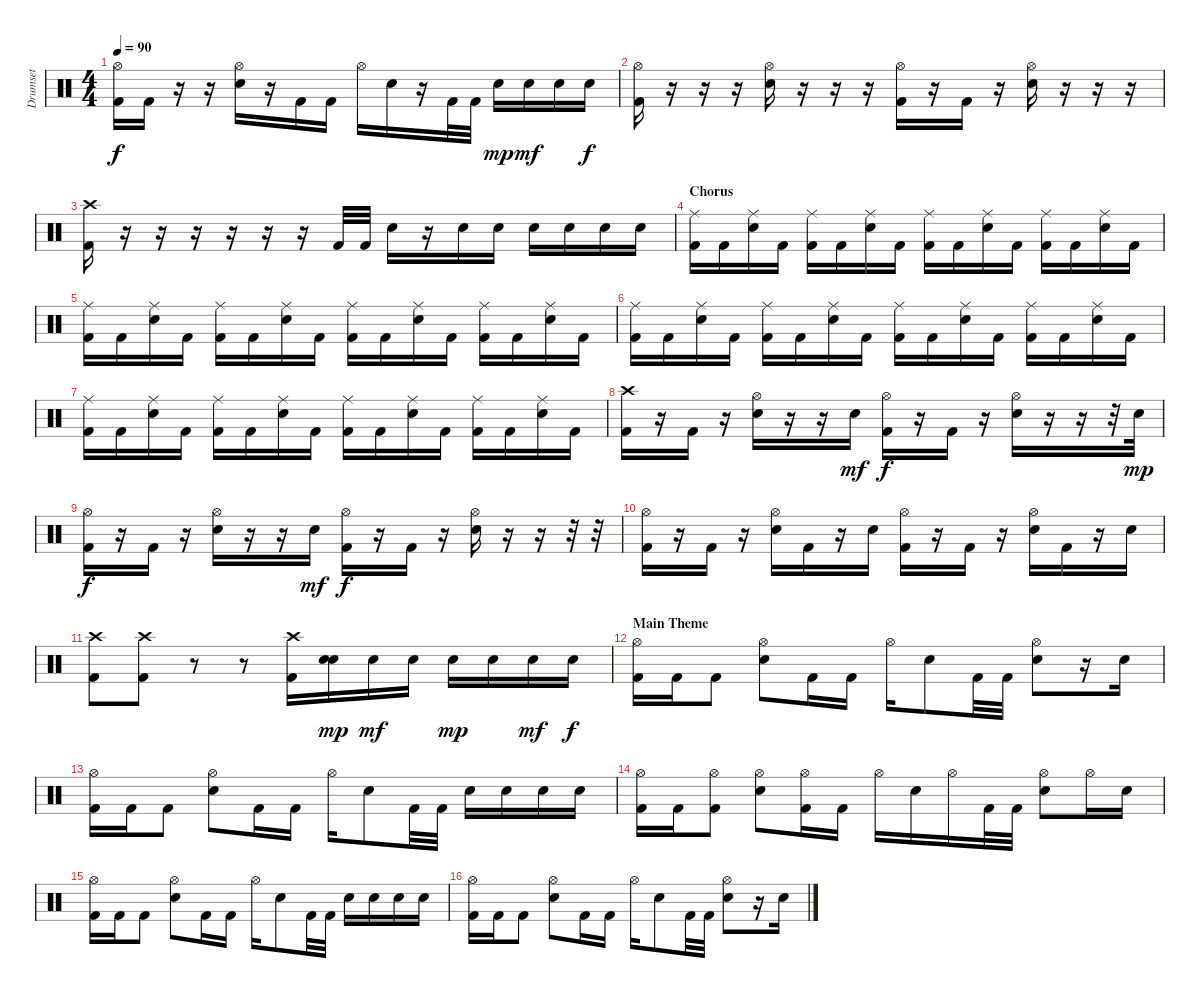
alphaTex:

\track ("Drumset" "Drumset") {instrument percussion}
\staff {score}
\articulation defaults
\ts (4 4)
\tempo 90
\clef neutral
\ks c
("Hi-Hat (open)" "Kick (hit) 2").16{dy f} "Kick (hit) 2".16 r.16 r.16 ("Hi-Hat (open)" "Electric Snare (hit)").16 r.16 "Kick (hit) 2".16 "Kick (hit) 2".16 "Hi-Hat (open)".16 "Electric Snare (hit)".16 r.16 "Kick (hit) 2".32 "Kick (hit) 2".32 "Electric Snare (hit)".16{dy mp} "Electric Snare (hit)".16{dy mf} "Electric Snare (hit)".16 "Electric Snare (hit)".16{dy f} |
("Hi-Hat (open)" "Kick (hit) 2").16 r.16 r.16 r.16 ("Hi-Hat (open)" "Electric Snare (hit)").16 r.16 r.16 r.16 ("Hi-Hat (open)" "Kick (hit) 2").16 r.16 "Kick (hit) 2".16 r.16 ("Hi-Hat (open)" "Electric Snare (hit)").16 r.16 r.16 r.16 |
("Crash high (hit)" "Kick (hit) 2").16 r.16 r.16 r.16 r.16 r.16 r.16 "Kick (hit) 2".32 "Kick (hit) 2".32 "Electric Snare (hit)".16 r.16 "Electric Snare (hit)".16 "Electric Snare (hit)".16 "Electric Snare (hit)".16 "Electric Snare (hit)".16 "Electric Snare (hit)".16 "Electric Snare (hit)".16 |
\section ("" "Chorus")
("Ride (middle)" "Kick (hit) 2").16 "Kick (hit) 2".16 ("Ride (middle)" "Electric Snare (hit)").16 "Kick (hit) 2".16 ("Ride (middle)" "Kick (hit) 2").16 "Kick (hit) 2".16 ("Ride (middle)" "Electric Snare (hit)").16 "Kick (hit) 2".16 ("Ride (middle)" "Kick (hit) 2").16 "Kick (hit) 2".16 ("Ride (middle)" "Electric Snare (hit)").16 "Kick (hit) 2".16 ("Ride (middle)" "Kick (hit) 2").16 "Kick (hit) 2".16 ("Ride (middle)" "Electric Snare (hit)").16 "Kick (hit) 2".16 |
("Ride (middle)" "Kick (hit) 2").16 "Kick (hit) 2".16 ("Ride (middle)" "Electric Snare (hit)").16 "Kick (hit) 2".16 ("Ride (middle)" "Kick (hit) 2").16 "Kick (hit) 2".16 ("Ride (middle)" "Electric Snare (hit)").16 "Kick (hit) 2".16 ("Ride (middle)" "Kick (hit) 2").16 "Kick (hit) 2".16 ("Ride (middle)" "Electric Snare (hit)").16 "Kick (hit) 2".16 ("Ride (middle)" "Kick (hit) 2").16 "Kick (hit) 2".16 ("Ride (middle)" "Electric Snare (hit)").16 "Kick (hit) 2".16 |
("Ride (middle)" "Kick (hit) 2").16 "Kick (hit) 2".16 ("Ride (middle)" "Electric Snare (hit)").16 "Kick (hit) 2".16 ("Ride (middle)" "Kick (hit) 2").16 "Kick (hit) 2".16 ("Ride (middle)" "Electric Snare (hit)").16 "Kick (hit) 2".16 ("Ride (middle)" "Kick (hit) 2").16 "Kick (hit) 2".16 ("Ride (middle)" "Electric Snare (hit)").16 "Kick (hit) 2".16 ("Ride (middle)" "Kick (hit) 2").16 "Kick (hit) 2".16 ("Ride (middle)" "Electric Snare (hit)").16 "Kick (hit) 2".16 |
("Ride (middle)" "Kick (hit) 2").16 "Kick (hit) 2".16 ("Ride (middle)" "Electric Snare (hit)").16 "Kick (hit) 2".16 ("Ride (middle)" "Kick (hit) 2").16 "Kick (hit) 2".16 ("Ride (middle)" "Electric Snare (hit)").16 "Kick (hit) 2".16 ("Ride (middle)" "Kick (hit) 2").16 "Kick (hit) 2".16 ("Ride (middle)" "Electric Snare (hit)").16 "Kick (hit) 2".16 ("Ride (middle)" "Kick (hit) 2").16 "Kick (hit) 2".16 ("Ride (middle)" "Electric Snare (hit)").16 "Kick (hit) 2".16 |
("Crash high (hit)" "Kick (hit) 2").16 r.16 "Kick (hit) 2".16 r.16 ("Hi-Hat (open)" "Electric Snare (hit)").16 r.16 r.16 "Electric Snare (hit)".16{dy mf} ("Hi-Hat (open)" "Kick (hit) 2").16{dy f} r.16 "Kick (hit) 2".16 r.16 ("Hi-Hat (open)" "Electric Snare (hit)").16 r.16 r.16 r.32 "Electric Snare (hit)".32{dy mp} |
("Hi-Hat (open)" "Kick (hit) 2").16{dy f} r.16 "Kick (hit) 2".16 r.16 ("Hi-Hat (open)" "Electric Snare (hit)").16 r.16 r.16 "Electric Snare (hit)".16{dy mf} ("Hi-Hat (open)" "Kick (hit) 2").16{dy f} r.16 "Kick (hit) 2".16 r.16 ("Hi-Hat (open)" "Electric Snare (hit)").16 r.16 r.16 r.32 r.32 |
("Hi-Hat (open)" "Kick (hit) 2").16 r.16 "Kick (hit) 2".16 r.16 ("Hi-Hat (open)" "Electric Snare (hit)").16 "Kick (hit) 2".16 r.16 "Electric Snare (hit)".16 ("Hi-Hat (open)" "Kick (hit) 2").16 r.16 "Kick (hit) 2".16 r.16 ("Hi-Hat (open)" "Electric Snare (hit)").16 "Kick (hit) 2".16 r.16 "Electric Snare (hit)".16 |
("Crash high (hit)" "Kick (hit) 2").8 ("Crash high (hit)" "Kick (hit) 2").8 r.8 r.8 ("Crash high (hit)" "Kick (hit) 2").16 ("Electric Snare (hit)" "Electric Snare (hit)").16{bd 120 dy mp} "Electric Snare (hit)".16{dy mf} "Electric Snare (hit)".16 "Electric Snare (hit)".16{dy mp} "Electric Snare (hit)".16 "Electric Snare (hit)".16{dy mf} "Electric Snare (hit)".16{dy f} |
\section ("" "Main Theme")
("Hi-Hat (open)" "Kick (hit) 2").16 "Kick (hit) 2".16 "Kick (hit) 2".8 ("Hi-Hat (open)" "Electric Snare (hit)").8 "Kick (hit) 2".16 "Kick (hit) 2".16 "Hi-Hat (open)".16 "Electric Snare (hit)".8 "Kick (hit) 2".32 "Kick (hit) 2".32 ("Hi-Hat (open)" "Electric Snare (hit)").8 r.16 "Electric Snare (hit)".16 |
("Hi-Hat (open)" "Kick (hit) 2").16 "Kick (hit) 2".16 "Kick (hit) 2".8 ("Hi-Hat (open)" "Electric Snare (hit)").8 "Kick (hit) 2".16 "Kick (hit) 2".16 "Hi-Hat (open)".16 "Electric Snare (hit)".8 "Kick (hit) 2".32 "Kick (hit) 2".32 "Electric Snare (hit)".16 "Electric Snare (hit)".16 "Electric Snare (hit)".16 "Electric Snare (hit)".16 |
("Hi-Hat (open)" "Kick (hit) 2").16 "Kick (hit) 2".16 ("Hi-Hat (open)" "Kick (hit) 2").8 ("Hi-Hat (open)" "Electric Snare (hit)").8 ("Hi-Hat (open)" "Kick (hit) 2").16 "Kick (hit) 2".16 "Hi-Hat (open)".16 "Electric Snare (hit)".16 "Hi-Hat (open)".16 "Kick (hit) 2".32 "Kick (hit) 2".32 ("Hi-Hat (open)" "Electric Snare (hit)").8 "Hi-Hat (open)".16 "Electric Snare (hit)".16 |
("Hi-Hat (open)" "Kick (hit) 2").16 "Kick (hit) 2".16 "Kick (hit) 2".8 ("Hi-Hat (open)" "Electric Snare (hit)").8 "Kick (hit) 2".16 "Kick (hit) 2".16 "Hi-Hat (open)".16 "Electric Snare (hit)".8 "Kick (hit) 2".32 "Kick (hit) 2".32 "Electric Snare (hit)".16 "Electric Snare (hit)".16 "Electric Snare (hit)".16 "Electric Snare (hit)".16 |
("Hi-Hat (open)" "Kick (hit) 2").16 "Kick (hit) 2".16 "Kick (hit) 2".8 ("Hi-Hat (open)" "Electric Snare (hit)").8 "Kick (hit) 2".16 "Kick (hit) 2".16 "Hi-Hat (open)".16 "Electric Snare (hit)".8 "Kick (hit) 2".32 "Kick (hit) 2".32 ("Hi-Hat (open)" "Electric Snare (hit)").8 r.16 "Electric Snare (hit)".16
